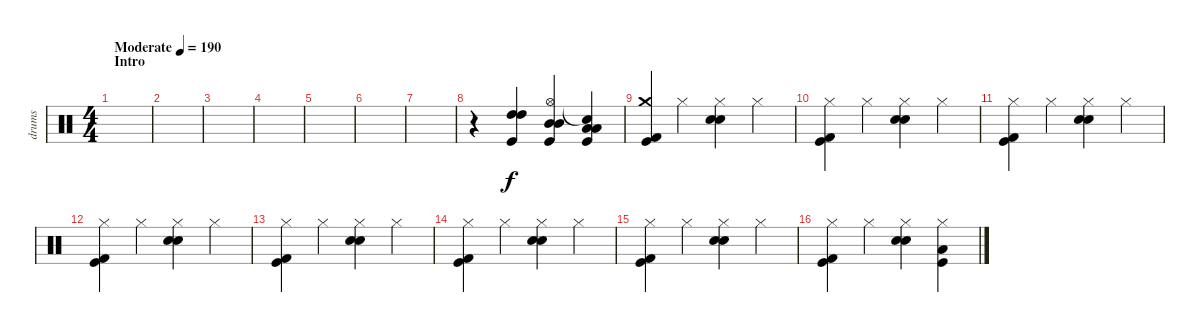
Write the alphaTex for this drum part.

\track ("drums" "drums") {instrument percussion}
\staff {score}
\articulation defaults
\ts (4 4)
\section ("" "Intro")
\tempo (190 "Moderate")
\clef neutral
\ks c
|
|
|
|
|
|
|
r.4 ("High Tom (hit)" "High Tom (hit)" "Kick (hit)").4 ("Hi-Hat (open)" "Mid Tom (hit)" "Mid Tom (hit)" "Kick (hit)").4 ("Snare (hit)"{t} "Low Tom (hit)" "Low Tom (hit)" "Kick (hit)").4 |
("Crash medium (hit)" "Kick (hit) 2" "Kick (hit)").4 "Hi-Hat (closed)".4 ("Hi-Hat (closed)" "Electric Snare (hit)" "Snare (hit) 2").4 "Hi-Hat (closed)".4 |
("Hi-Hat (closed)" "Kick (hit) 2" "Kick (hit)").4 "Hi-Hat (closed)".4 ("Hi-Hat (closed)" "Electric Snare (hit)" "Snare (hit) 2").4 "Hi-Hat (closed)".4 |
("Hi-Hat (closed)" "Kick (hit) 2" "Kick (hit)").4 "Hi-Hat (closed)".4 ("Hi-Hat (closed)" "Electric Snare (hit)" "Snare (hit) 2").4 "Hi-Hat (closed)".4 |
("Hi-Hat (closed)" "Kick (hit) 2" "Kick (hit)").4 "Hi-Hat (closed)".4 ("Hi-Hat (closed)" "Electric Snare (hit)" "Snare (hit) 2").4 "Hi-Hat (closed)".4 |
("Hi-Hat (closed)" "Kick (hit) 2" "Kick (hit)").4 "Hi-Hat (closed)".4 ("Hi-Hat (closed)" "Electric Snare (hit)" "Snare (hit) 2").4 "Hi-Hat (closed)".4 |
("Hi-Hat (closed)" "Kick (hit) 2" "Kick (hit)").4 "Hi-Hat (closed)".4 ("Hi-Hat (closed)" "Electric Snare (hit)" "Snare (hit) 2").4 "Hi-Hat (closed)".4 |
("Hi-Hat (closed)" "Kick (hit) 2" "Kick (hit)").4 "Hi-Hat (closed)".4 ("Hi-Hat (closed)" "Electric Snare (hit)" "Snare (hit) 2").4 "Hi-Hat (closed)".4 |
("Hi-Hat (closed)" "Kick (hit) 2" "Kick (hit)").4 "Hi-Hat (closed)".4 ("Hi-Hat (closed)" "Electric Snare (hit)" "Snare (hit) 2").4 ("Hi-Hat (closed)" "Low Tom (hit)" "Kick (hit)").4
